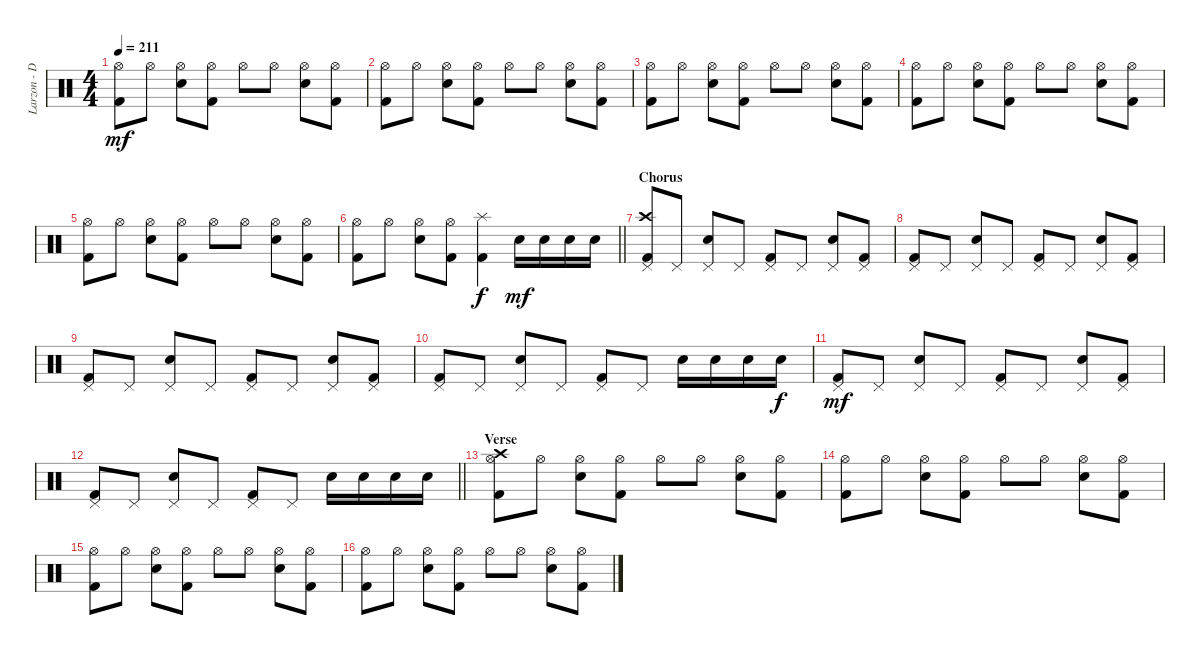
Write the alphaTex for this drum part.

\track ("Larzon - Drums" "Larzon - D") {instrument percussion}
\staff {score}
\articulation defaults
\ts (4 4)
\tempo 211
\clef neutral
\ks c
("Kick (hit) 2" "Hi-Hat (open)").8{dy mf} "Hi-Hat (open)".8 ("Snare (hit) 2" "Hi-Hat (open)").8 ("Kick (hit) 2" "Hi-Hat (open)").8 "Hi-Hat (open)".8 "Hi-Hat (open)".8 ("Snare (hit) 2" "Hi-Hat (open)").8 ("Kick (hit) 2" "Hi-Hat (open)").8 |
("Kick (hit) 2" "Hi-Hat (open)").8 "Hi-Hat (open)".8 ("Snare (hit) 2" "Hi-Hat (open)").8 ("Kick (hit) 2" "Hi-Hat (open)").8 "Hi-Hat (open)".8 "Hi-Hat (open)".8 ("Snare (hit) 2" "Hi-Hat (open)").8 ("Kick (hit) 2" "Hi-Hat (open)").8 |
("Kick (hit) 2" "Hi-Hat (open)").8 "Hi-Hat (open)".8 ("Snare (hit) 2" "Hi-Hat (open)").8 ("Kick (hit) 2" "Hi-Hat (open)").8 "Hi-Hat (open)".8 "Hi-Hat (open)".8 ("Snare (hit) 2" "Hi-Hat (open)").8 ("Kick (hit) 2" "Hi-Hat (open)").8 |
("Kick (hit) 2" "Hi-Hat (open)").8 "Hi-Hat (open)".8 ("Snare (hit) 2" "Hi-Hat (open)").8 ("Kick (hit) 2" "Hi-Hat (open)").8 "Hi-Hat (open)".8 "Hi-Hat (open)".8 ("Snare (hit) 2" "Hi-Hat (open)").8 ("Kick (hit) 2" "Hi-Hat (open)").8 |
("Kick (hit) 2" "Hi-Hat (open)").8 "Hi-Hat (open)".8 ("Snare (hit) 2" "Hi-Hat (open)").8 ("Kick (hit) 2" "Hi-Hat (open)").8 "Hi-Hat (open)".8 "Hi-Hat (open)".8 ("Snare (hit) 2" "Hi-Hat (open)").8 ("Kick (hit) 2" "Hi-Hat (open)").8 |
\barLineRight lightlight
("Kick (hit) 2" "Hi-Hat (open)").8 "Hi-Hat (open)".8 ("Snare (hit) 2" "Hi-Hat (open)").8 ("Kick (hit) 2" "Hi-Hat (open)").8 ("Splash (hit)" "Kick (hit) 2").4{dy f} "Snare (hit) 2".16{dy mf} "Snare (hit) 2".16 "Snare (hit) 2".16 "Snare (hit) 2".16 |
\section ("" "Chorus")
("Kick (hit) 2" "Crash high (hit)" "Pedal Hi-Hat (hit)").8 "Pedal Hi-Hat (hit)".8 ("Snare (hit) 2" "Pedal Hi-Hat (hit)").8 "Pedal Hi-Hat (hit)".8 ("Kick (hit) 2" "Pedal Hi-Hat (hit)").8 "Pedal Hi-Hat (hit)".8 ("Snare (hit) 2" "Pedal Hi-Hat (hit)").8 ("Kick (hit) 2" "Pedal Hi-Hat (hit)").8 |
("Kick (hit) 2" "Pedal Hi-Hat (hit)").8 "Pedal Hi-Hat (hit)".8 ("Snare (hit) 2" "Pedal Hi-Hat (hit)").8 "Pedal Hi-Hat (hit)".8 ("Kick (hit) 2" "Pedal Hi-Hat (hit)").8 "Pedal Hi-Hat (hit)".8 ("Snare (hit) 2" "Pedal Hi-Hat (hit)").8 ("Kick (hit) 2" "Pedal Hi-Hat (hit)").8 |
("Kick (hit) 2" "Pedal Hi-Hat (hit)").8 "Pedal Hi-Hat (hit)".8 ("Snare (hit) 2" "Pedal Hi-Hat (hit)").8 "Pedal Hi-Hat (hit)".8 ("Kick (hit) 2" "Pedal Hi-Hat (hit)").8 "Pedal Hi-Hat (hit)".8 ("Snare (hit) 2" "Pedal Hi-Hat (hit)").8 ("Kick (hit) 2" "Pedal Hi-Hat (hit)").8 |
("Kick (hit) 2" "Pedal Hi-Hat (hit)").8 "Pedal Hi-Hat (hit)".8 ("Snare (hit) 2" "Pedal Hi-Hat (hit)").8 "Pedal Hi-Hat (hit)".8 ("Kick (hit) 2" "Pedal Hi-Hat (hit)").8 "Pedal Hi-Hat (hit)".8 "Snare (hit) 2".16 "Snare (hit) 2".16 "Snare (hit) 2".16 "Snare (hit) 2".16{dy f} |
("Kick (hit) 2" "Pedal Hi-Hat (hit)").8{dy mf} "Pedal Hi-Hat (hit)".8 ("Snare (hit) 2" "Pedal Hi-Hat (hit)").8 "Pedal Hi-Hat (hit)".8 ("Kick (hit) 2" "Pedal Hi-Hat (hit)").8 "Pedal Hi-Hat (hit)".8 ("Snare (hit) 2" "Pedal Hi-Hat (hit)").8 ("Kick (hit) 2" "Pedal Hi-Hat (hit)").8 |
\barLineRight lightlight
("Kick (hit) 2" "Pedal Hi-Hat (hit)").8 "Pedal Hi-Hat (hit)".8 ("Snare (hit) 2" "Pedal Hi-Hat (hit)").8 "Pedal Hi-Hat (hit)".8 ("Kick (hit) 2" "Pedal Hi-Hat (hit)").8 "Pedal Hi-Hat (hit)".8 "Snare (hit) 2".16 "Snare (hit) 2".16 "Snare (hit) 2".16 "Snare (hit) 2".16 |
\section ("" "Verse")
("Kick (hit) 2" "Crash high (hit)" "Hi-Hat (open)").8 "Hi-Hat (open)".8 ("Snare (hit) 2" "Hi-Hat (open)").8 ("Kick (hit) 2" "Hi-Hat (open)").8 "Hi-Hat (open)".8 "Hi-Hat (open)".8 ("Snare (hit) 2" "Hi-Hat (open)").8 ("Kick (hit) 2" "Hi-Hat (open)").8 |
("Kick (hit) 2" "Hi-Hat (open)").8 "Hi-Hat (open)".8 ("Snare (hit) 2" "Hi-Hat (open)").8 ("Kick (hit) 2" "Hi-Hat (open)").8 "Hi-Hat (open)".8 "Hi-Hat (open)".8 ("Snare (hit) 2" "Hi-Hat (open)").8 ("Kick (hit) 2" "Hi-Hat (open)").8 |
("Kick (hit) 2" "Hi-Hat (open)").8 "Hi-Hat (open)".8 ("Snare (hit) 2" "Hi-Hat (open)").8 ("Kick (hit) 2" "Hi-Hat (open)").8 "Hi-Hat (open)".8 "Hi-Hat (open)".8 ("Snare (hit) 2" "Hi-Hat (open)").8 ("Kick (hit) 2" "Hi-Hat (open)").8 |
("Kick (hit) 2" "Hi-Hat (open)").8 "Hi-Hat (open)".8 ("Snare (hit) 2" "Hi-Hat (open)").8 ("Kick (hit) 2" "Hi-Hat (open)").8 "Hi-Hat (open)".8 "Hi-Hat (open)".8 ("Snare (hit) 2" "Hi-Hat (open)").8 ("Kick (hit) 2" "Hi-Hat (open)").8
